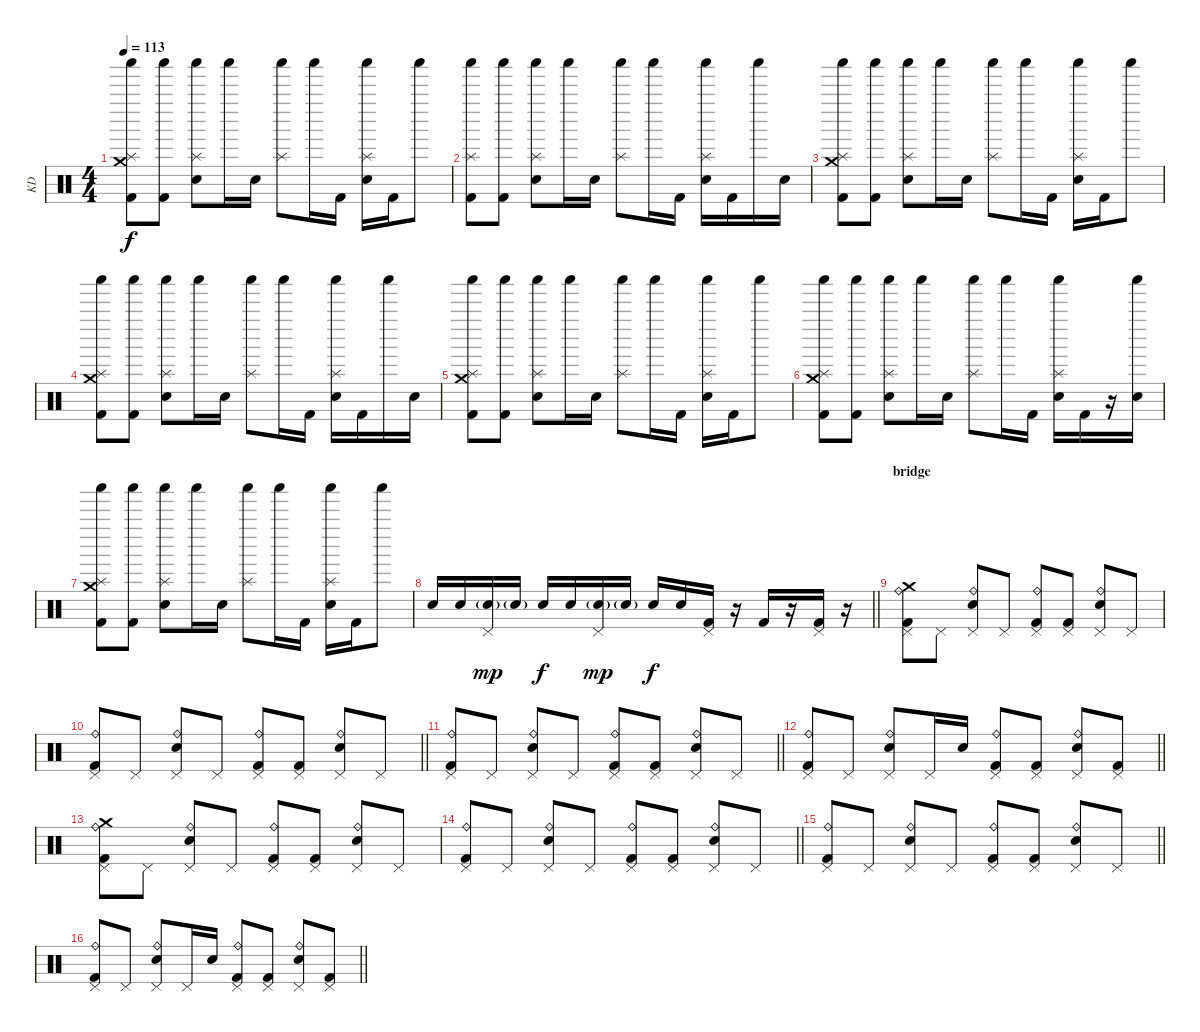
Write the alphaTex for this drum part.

\track ("KD" "KD") {instrument percussion}
\staff {score}
\articulation defaults
\ts (4 4)
\tempo 113
\clef neutral
\ks c
("Crash medium (hit)" "Kick (hit) 2" "Splash (hit)" "Shaker (hit)").8{dy f} ("Kick (hit) 2" "Shaker (hit)").8 ("Electric Snare (hit)" "Splash (hit)" "Shaker (hit)").8 "Shaker (hit)".16 "Electric Snare (hit)".16 ("Splash (hit)" "Shaker (hit)").8 "Shaker (hit)".16 "Kick (hit) 2".16 ("Electric Snare (hit)" "Splash (hit)" "Shaker (hit)").16 "Kick (hit) 2".16 "Shaker (hit)".8 |
("Kick (hit) 2" "Splash (hit)" "Shaker (hit)").8 ("Kick (hit) 2" "Shaker (hit)").8 ("Electric Snare (hit)" "Splash (hit)" "Shaker (hit)").8 "Shaker (hit)".16 "Electric Snare (hit)".16 ("Splash (hit)" "Shaker (hit)").8 "Shaker (hit)".16 "Kick (hit) 2".16 ("Electric Snare (hit)" "Splash (hit)" "Shaker (hit)").16 "Kick (hit) 2".16 "Shaker (hit)".16 "Electric Snare (hit)".16 |
("Crash medium (hit)" "Kick (hit) 2" "Splash (hit)" "Shaker (hit)").8 ("Kick (hit) 2" "Shaker (hit)").8 ("Electric Snare (hit)" "Splash (hit)" "Shaker (hit)").8 "Shaker (hit)".16 "Electric Snare (hit)".16 ("Splash (hit)" "Shaker (hit)").8 "Shaker (hit)".16 "Kick (hit) 2".16 ("Electric Snare (hit)" "Splash (hit)" "Shaker (hit)").16 "Kick (hit) 2".16 "Shaker (hit)".8 |
("Crash medium (hit)" "Kick (hit) 2" "Splash (hit)" "Shaker (hit)").8 ("Kick (hit) 2" "Shaker (hit)").8 ("Electric Snare (hit)" "Splash (hit)" "Shaker (hit)").8 "Shaker (hit)".16 "Electric Snare (hit)".16 ("Splash (hit)" "Shaker (hit)").8 "Shaker (hit)".16 "Kick (hit) 2".16 ("Electric Snare (hit)" "Splash (hit)" "Shaker (hit)").16 "Kick (hit) 2".16 "Shaker (hit)".16 "Electric Snare (hit)".16 |
("Crash medium (hit)" "Kick (hit) 2" "Splash (hit)" "Shaker (hit)").8 ("Kick (hit) 2" "Shaker (hit)").8 ("Electric Snare (hit)" "Splash (hit)" "Shaker (hit)").8 "Shaker (hit)".16 "Electric Snare (hit)".16 ("Splash (hit)" "Shaker (hit)").8 "Shaker (hit)".16 "Kick (hit) 2".16 ("Electric Snare (hit)" "Splash (hit)" "Shaker (hit)").16 "Kick (hit) 2".16 "Shaker (hit)".8 |
("Crash medium (hit)" "Kick (hit) 2" "Splash (hit)" "Shaker (hit)").8 ("Kick (hit) 2" "Shaker (hit)").8 ("Electric Snare (hit)" "Splash (hit)" "Shaker (hit)").8 "Shaker (hit)".16 "Electric Snare (hit)".16 ("Splash (hit)" "Shaker (hit)").8 "Shaker (hit)".16 "Kick (hit) 2".16 ("Electric Snare (hit)" "Splash (hit)" "Shaker (hit)").16 "Kick (hit) 2".16 r.16 ("Electric Snare (hit)" "Shaker (hit)").16 |
("Crash medium (hit)" "Kick (hit) 2" "Splash (hit)" "Shaker (hit)").8 ("Kick (hit) 2" "Shaker (hit)").8 ("Electric Snare (hit)" "Splash (hit)" "Shaker (hit)").8 "Shaker (hit)".16 "Electric Snare (hit)".16 ("Splash (hit)" "Shaker (hit)").8 "Shaker (hit)".16 "Kick (hit) 2".16 ("Electric Snare (hit)" "Splash (hit)" "Shaker (hit)").16 "Kick (hit) 2".16 "Shaker (hit)".8 |
\barLineRight lightlight "Electric Snare (hit)".16 "Electric Snare (hit)".16
("Pedal Hi-Hat (hit)" "Electric Snare (hit)"{g}).16{dy mp} "Electric Snare (hit)"{g}.16 "Electric Snare (hit)".16{dy f} "Electric Snare (hit)".16 ("Pedal Hi-Hat (hit)" "Electric Snare (hit)"{g}).16{dy mp} "Electric Snare (hit)"{g}.16 "Electric Snare (hit)".16{dy f} "Electric Snare (hit)".16 ("Pedal Hi-Hat (hit)" "Kick (hit) 2").16 r.16 "Kick (hit) 2".16 r.16 ("Pedal Hi-Hat (hit)" "Kick (hit) 2").16 r.16 |
\section ("" "bridge")
("Crash medium (hit)" "Kick (hit) 2" "Pedal Hi-Hat (hit)" "Ride (bell)").8 "Pedal Hi-Hat (hit)".8 ("Electric Snare (hit)" "Pedal Hi-Hat (hit)" "Ride (bell)").8 "Pedal Hi-Hat (hit)".8 ("Kick (hit) 2" "Pedal Hi-Hat (hit)" "Ride (bell)").8 ("Kick (hit) 2" "Pedal Hi-Hat (hit)").8 ("Electric Snare (hit)" "Pedal Hi-Hat (hit)" "Ride (bell)").8 "Pedal Hi-Hat (hit)".8 |
\barLineRight lightlight
("Kick (hit) 2" "Pedal Hi-Hat (hit)" "Ride (bell)").8 "Pedal Hi-Hat (hit)".8 ("Electric Snare (hit)" "Pedal Hi-Hat (hit)" "Ride (bell)").8 "Pedal Hi-Hat (hit)".8 ("Kick (hit) 2" "Pedal Hi-Hat (hit)" "Ride (bell)").8 ("Kick (hit) 2" "Pedal Hi-Hat (hit)").8 ("Electric Snare (hit)" "Pedal Hi-Hat (hit)" "Ride (bell)").8 "Pedal Hi-Hat (hit)".8 |
\barLineRight lightlight
("Kick (hit) 2" "Pedal Hi-Hat (hit)" "Ride (bell)").8 "Pedal Hi-Hat (hit)".8 ("Electric Snare (hit)" "Pedal Hi-Hat (hit)" "Ride (bell)").8 "Pedal Hi-Hat (hit)".8 ("Kick (hit) 2" "Pedal Hi-Hat (hit)" "Ride (bell)").8 ("Kick (hit) 2" "Pedal Hi-Hat (hit)").8 ("Electric Snare (hit)" "Pedal Hi-Hat (hit)" "Ride (bell)").8 "Pedal Hi-Hat (hit)".8 |
\barLineRight lightlight
("Kick (hit) 2" "Pedal Hi-Hat (hit)" "Ride (bell)").8 "Pedal Hi-Hat (hit)".8 ("Electric Snare (hit)" "Pedal Hi-Hat (hit)" "Ride (bell)").8 "Pedal Hi-Hat (hit)".16 "Electric Snare (hit)".16 ("Kick (hit) 2" "Pedal Hi-Hat (hit)" "Ride (bell)").8 ("Kick (hit) 2" "Pedal Hi-Hat (hit)").8 ("Electric Snare (hit)" "Pedal Hi-Hat (hit)" "Ride (bell)").8 ("Kick (hit) 2" "Pedal Hi-Hat (hit)").8 |
("Crash medium (hit)" "Kick (hit) 2" "Pedal Hi-Hat (hit)" "Ride (bell)").8 "Pedal Hi-Hat (hit)".8 ("Electric Snare (hit)" "Pedal Hi-Hat (hit)" "Ride (bell)").8 "Pedal Hi-Hat (hit)".8 ("Kick (hit) 2" "Pedal Hi-Hat (hit)" "Ride (bell)").8 ("Kick (hit) 2" "Pedal Hi-Hat (hit)").8 ("Electric Snare (hit)" "Pedal Hi-Hat (hit)" "Ride (bell)").8 "Pedal Hi-Hat (hit)".8 |
\barLineRight lightlight
("Kick (hit) 2" "Pedal Hi-Hat (hit)" "Ride (bell)").8 "Pedal Hi-Hat (hit)".8 ("Electric Snare (hit)" "Pedal Hi-Hat (hit)" "Ride (bell)").8 "Pedal Hi-Hat (hit)".8 ("Kick (hit) 2" "Pedal Hi-Hat (hit)" "Ride (bell)").8 ("Kick (hit) 2" "Pedal Hi-Hat (hit)").8 ("Electric Snare (hit)" "Pedal Hi-Hat (hit)" "Ride (bell)").8 "Pedal Hi-Hat (hit)".8 |
\barLineRight lightlight
("Kick (hit) 2" "Pedal Hi-Hat (hit)" "Ride (bell)").8 "Pedal Hi-Hat (hit)".8 ("Electric Snare (hit)" "Pedal Hi-Hat (hit)" "Ride (bell)").8 "Pedal Hi-Hat (hit)".8 ("Kick (hit) 2" "Pedal Hi-Hat (hit)" "Ride (bell)").8 ("Kick (hit) 2" "Pedal Hi-Hat (hit)").8 ("Electric Snare (hit)" "Pedal Hi-Hat (hit)" "Ride (bell)").8 "Pedal Hi-Hat (hit)".8 |
\barLineRight lightlight
("Kick (hit) 2" "Pedal Hi-Hat (hit)" "Ride (bell)").8 "Pedal Hi-Hat (hit)".8 ("Electric Snare (hit)" "Pedal Hi-Hat (hit)" "Ride (bell)").8 "Pedal Hi-Hat (hit)".16 "Electric Snare (hit)".16 ("Kick (hit) 2" "Pedal Hi-Hat (hit)" "Ride (bell)").8 ("Kick (hit) 2" "Pedal Hi-Hat (hit)").8 ("Electric Snare (hit)" "Pedal Hi-Hat (hit)" "Ride (bell)").8 ("Kick (hit) 2" "Pedal Hi-Hat (hit)").8
